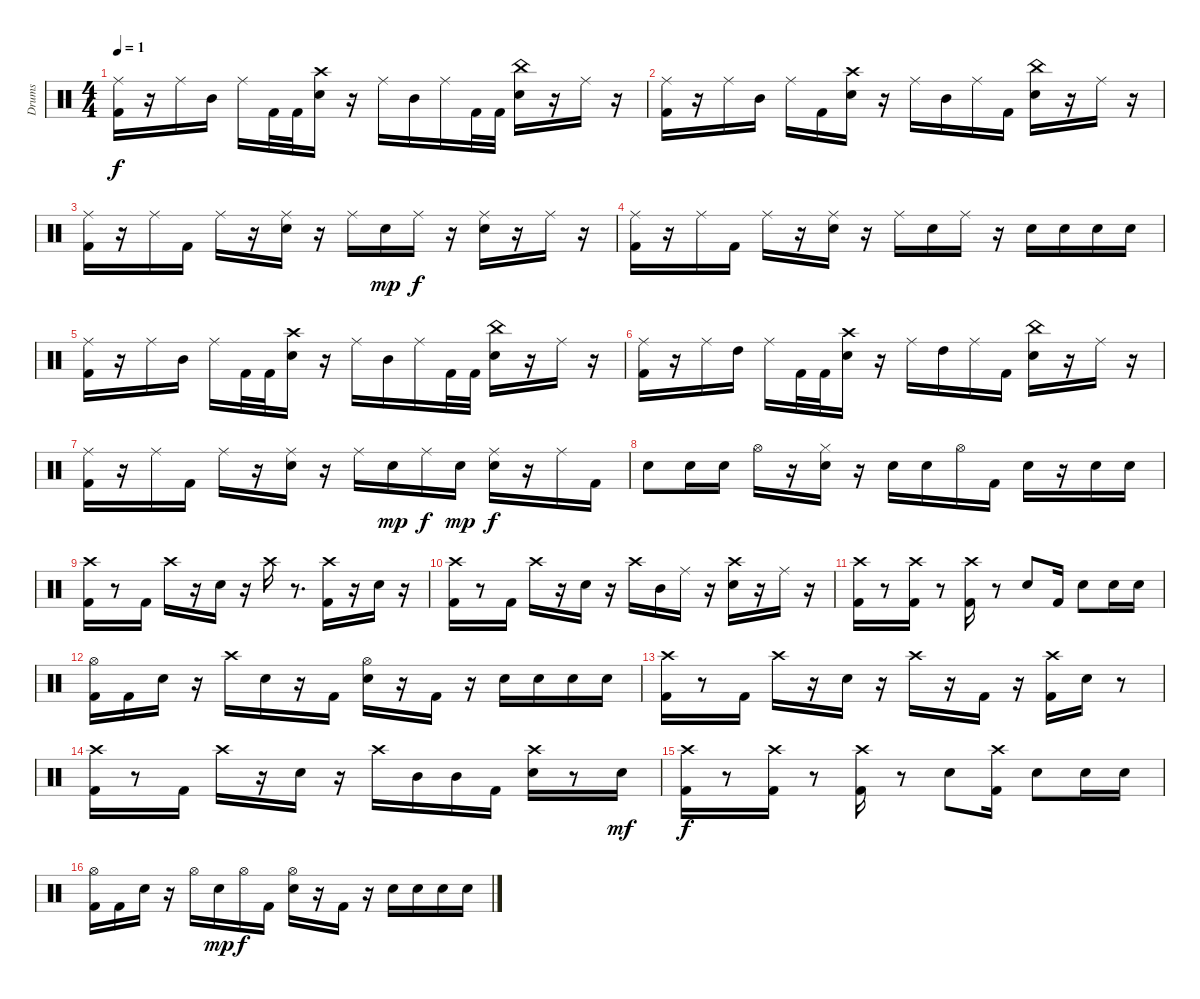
\track ("Drums" "Drums") {instrument percussion}
\staff {score}
\articulation defaults
\ts (4 4)
\tempo 1
\clef neutral
\ks c
("Kick (hit) 2" "Ride (middle)").16{dy f} r.16 "Ride (middle)".16 "Mid Tom (hit)".16 "Ride (middle)".16 "Kick (hit) 2".32 "Kick (hit) 2".32 ("Snare (hit) 2" "Crash high (hit)").16 r.16 "Ride (middle)".16 "Mid Tom (hit)".16 "Ride (middle)".16 "Kick (hit) 2".32 "Kick (hit) 2".32 ("Snare (hit) 2" "China (hit)").16 r.16 "Ride (middle)".16 r.16 |
("Kick (hit) 2" "Ride (middle)").16 r.16 "Ride (middle)".16 "Mid Tom (hit)".16 "Ride (middle)".16 "Kick (hit) 2".16 ("Snare (hit) 2" "Crash high (hit)").16 r.16 "Ride (middle)".16 "Mid Tom (hit)".16 "Ride (middle)".16 "Kick (hit) 2".16 ("Snare (hit) 2" "China (hit)").16 r.16 "Ride (middle)".16 r.16 |
("Kick (hit) 2" "Ride (middle)").16 r.16 "Ride (middle)".16 "Kick (hit) 2".16 "Ride (middle)".16 r.16 ("Snare (hit) 2" "Ride (middle)").16 r.16 "Ride (middle)".16 "Snare (hit) 2".16{dy mp} "Ride (middle)".16{dy f} r.16 ("Snare (hit) 2" "Ride (middle)").16 r.16 "Ride (middle)".16 r.16 |
("Kick (hit) 2" "Ride (middle)").16 r.16 "Ride (middle)".16 "Kick (hit) 2".16 "Ride (middle)".16 r.16 ("Snare (hit) 2" "Ride (middle)").16 r.16 "Ride (middle)".16 "Snare (hit) 2".16 "Ride (middle)".16 r.16 "Snare (hit) 2".16 "Snare (hit) 2".16 "Snare (hit) 2".16 "Snare (hit) 2".16 |
("Kick (hit) 2" "Ride (middle)").16 r.16 "Ride (middle)".16 "Mid Tom (hit)".16 "Ride (middle)".16 "Kick (hit) 2".32 "Kick (hit) 2".32 ("Snare (hit) 2" "Crash high (hit)").16 r.16 "Ride (middle)".16 "Mid Tom (hit)".16 "Ride (middle)".16 "Kick (hit) 2".32 "Kick (hit) 2".32 ("Snare (hit) 2" "China (hit)").16 r.16 "Ride (middle)".16 r.16 |
("Kick (hit) 2" "Ride (middle)").16 r.16 "Ride (middle)".16 "High Tom (hit)".16 "Ride (middle)".16 "Kick (hit) 2".32 "Kick (hit) 2".32 ("Snare (hit) 2" "Crash high (hit)").16 r.16 "Ride (middle)".16 "High Tom (hit)".16 "Ride (middle)".16 "Kick (hit) 2".16 ("Snare (hit) 2" "China (hit)").16 r.16 "Ride (middle)".16 r.16 |
("Kick (hit) 2" "Ride (middle)").16 r.16 "Ride (middle)".16 "Kick (hit) 2".16 "Ride (middle)".16 r.16 ("Snare (hit) 2" "Ride (middle)").16 r.16 "Ride (middle)".16 "Snare (hit) 2".16{dy mp} "Ride (middle)".16{dy f} "Snare (hit) 2".16{dy mp} ("Snare (hit) 2" "Ride (middle)").16{dy f} r.16 "Ride (middle)".16 "Kick (hit) 2".16 |
"Snare (hit) 2".8 "Snare (hit) 2".16 "Snare (hit) 2".16 "Hi-Hat (open)".16 r.16 ("Snare (hit) 2" "Hi-Hat (closed)").16 r.16 "Snare (hit) 2".16 "Snare (hit) 2".16 "Hi-Hat (open)".16 "Kick (hit) 2".16 "Snare (hit) 2".16 r.16 "Snare (hit) 2".16 "Snare (hit) 2".16 |
("Kick (hit) 2" "Crash high (hit)").16 r.8 "Kick (hit) 2".16 "Crash high (hit)".16 r.16 "Snare (hit) 2".16 r.16 "Crash high (hit)".16 r.8{d} ("Kick (hit) 2" "Crash high (hit)").16 r.16 "Snare (hit) 2".16 r.16 |
("Kick (hit) 2" "Crash high (hit)").16 r.8 "Kick (hit) 2".16 "Crash high (hit)".16 r.16 "Snare (hit) 2".16 r.16 "Crash high (hit)".16 "Mid Tom (hit)".16 "Ride (middle)".16 r.16 ("Snare (hit) 2" "Crash high (hit)").16 r.16 "Ride (middle)".16 r.16 |
("Kick (hit) 2" "Crash high (hit)").16 r.8 ("Kick (hit) 2" "Crash high (hit)").16 r.8 ("Kick (hit) 2" "Crash high (hit)").16 r.8 "Snare (hit) 2".8 "Kick (hit) 2".16 "Snare (hit) 2".8 "Snare (hit) 2".16 "Snare (hit) 2".16 |
("Kick (hit) 2" "Hi-Hat (open)").16 "Kick (hit) 2".16 "Snare (hit) 2".16 r.16 "Crash high (hit)".16 "Snare (hit) 2".16 r.16 "Kick (hit) 2".16 ("Snare (hit) 2" "Hi-Hat (open)").16 r.16 "Kick (hit) 2".16 r.16 "Snare (hit) 2".16 "Snare (hit) 2".16 "Snare (hit) 2".16 "Snare (hit) 2".16 |
("Kick (hit) 2" "Crash high (hit)").16 r.8 "Kick (hit) 2".16 "Crash high (hit)".16 r.16 "Snare (hit) 2".16 r.16 "Crash high (hit)".16 r.16 "Kick (hit) 2".16 r.16 ("Kick (hit) 2" "Crash high (hit)").16 "Snare (hit) 2".16 r.8 |
("Kick (hit) 2" "Crash high (hit)").16 r.8 "Kick (hit) 2".16 "Crash high (hit)".16 r.16 "Snare (hit) 2".16 r.16 "Crash high (hit)".16 "Mid Tom (hit)".16 "Mid Tom (hit)".16 "Kick (hit) 2".16 ("Snare (hit) 2" "Crash high (hit)").16 r.8 "Snare (hit) 2".16{dy mf} |
("Kick (hit) 2" "Crash high (hit)").16{dy f} r.8 ("Kick (hit) 2" "Crash high (hit)").16 r.8 ("Kick (hit) 2" "Crash high (hit)").16 r.8 "Snare (hit) 2".8 ("Kick (hit) 2" "Crash high (hit)").16 "Snare (hit) 2".8 "Snare (hit) 2".16 "Snare (hit) 2".16 |
("Kick (hit) 2" "Hi-Hat (open)").16 "Kick (hit) 2".16 "Snare (hit) 2".16 r.16 "Hi-Hat (open)".16 "Snare (hit) 2".16{dy mp} "Hi-Hat (open)".16{dy f} "Kick (hit) 2".16 ("Snare (hit) 2" "Hi-Hat (open)").16 r.16 "Kick (hit) 2".16 r.16 "Snare (hit) 2".16 "Snare (hit) 2".16 "Snare (hit) 2".16 "Snare (hit) 2".16
